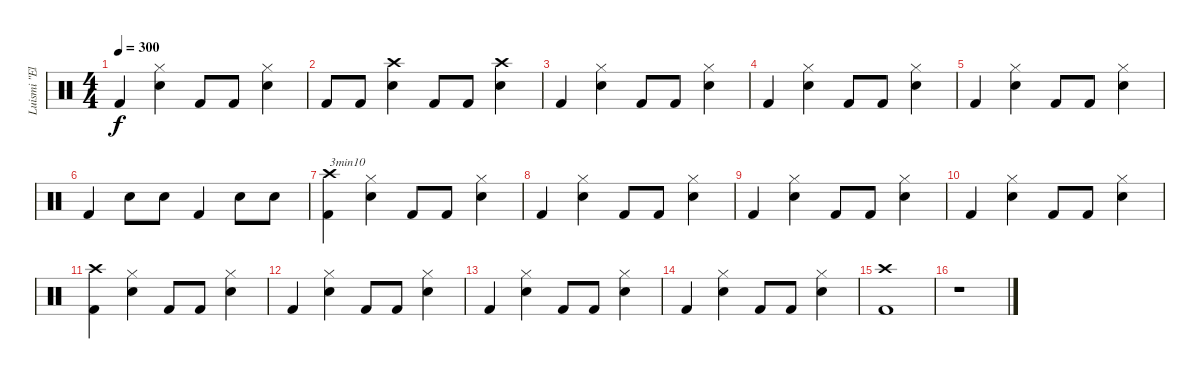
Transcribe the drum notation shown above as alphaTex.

\track ("Luismi \"El Papi\"" "Luismi \"El") {instrument percussion}
\staff {score}
\articulation defaults
\ts (4 4)
\tempo 300
\clef neutral
\ks c "Kick (hit) 2".4{dy f}
("Hi-Hat (closed)" "Snare (hit) 2").4 "Kick (hit) 2".8 "Kick (hit) 2".8 ("Hi-Hat (closed)" "Snare (hit) 2").4 |
"Kick (hit) 2".8 "Kick (hit) 2".8 ("Crash high (hit)" "Snare (hit) 2").4 "Kick (hit) 2".8 "Kick (hit) 2".8 ("Crash high (hit)" "Snare (hit) 2").4 |
"Kick (hit) 2".4 ("Hi-Hat (closed)" "Snare (hit) 2").4 "Kick (hit) 2".8 "Kick (hit) 2".8 ("Hi-Hat (closed)" "Snare (hit) 2").4 |
"Kick (hit) 2".4 ("Hi-Hat (closed)" "Snare (hit) 2").4 "Kick (hit) 2".8 "Kick (hit) 2".8 ("Hi-Hat (closed)" "Snare (hit) 2").4 |
"Kick (hit) 2".4 ("Hi-Hat (closed)" "Snare (hit) 2").4 "Kick (hit) 2".8 "Kick (hit) 2".8 ("Hi-Hat (closed)" "Snare (hit) 2").4 |
"Kick (hit) 2".4 "Snare (hit) 2".8 "Snare (hit) 2".8 "Kick (hit) 2".4 "Snare (hit) 2".8 "Snare (hit) 2".8 |
("Crash high (hit)" "Kick (hit) 2").4{txt "3min10"} ("Hi-Hat (closed)" "Snare (hit) 2").4 "Kick (hit) 2".8 "Kick (hit) 2".8 ("Hi-Hat (closed)" "Snare (hit) 2").4 |
"Kick (hit) 2".4 ("Hi-Hat (closed)" "Snare (hit) 2").4 "Kick (hit) 2".8 "Kick (hit) 2".8 ("Hi-Hat (closed)" "Snare (hit) 2").4 |
"Kick (hit) 2".4 ("Hi-Hat (closed)" "Snare (hit) 2").4 "Kick (hit) 2".8 "Kick (hit) 2".8 ("Hi-Hat (closed)" "Snare (hit) 2").4 |
"Kick (hit) 2".4 ("Hi-Hat (closed)" "Snare (hit) 2").4 "Kick (hit) 2".8 "Kick (hit) 2".8 ("Hi-Hat (closed)" "Snare (hit) 2").4 |
("Crash high (hit)" "Kick (hit) 2").4 ("Hi-Hat (closed)" "Snare (hit) 2").4 "Kick (hit) 2".8 "Kick (hit) 2".8 ("Hi-Hat (closed)" "Snare (hit) 2").4 |
"Kick (hit) 2".4 ("Hi-Hat (closed)" "Snare (hit) 2").4 "Kick (hit) 2".8 "Kick (hit) 2".8 ("Hi-Hat (closed)" "Snare (hit) 2").4 |
"Kick (hit) 2".4 ("Hi-Hat (closed)" "Snare (hit) 2").4 "Kick (hit) 2".8 "Kick (hit) 2".8 ("Hi-Hat (closed)" "Snare (hit) 2").4 |
"Kick (hit) 2".4 ("Hi-Hat (closed)" "Snare (hit) 2").4 "Kick (hit) 2".8 "Kick (hit) 2".8 ("Hi-Hat (closed)" "Snare (hit) 2").4 |
("Crash high (hit)" "Kick (hit) 2").1 |
r.1
